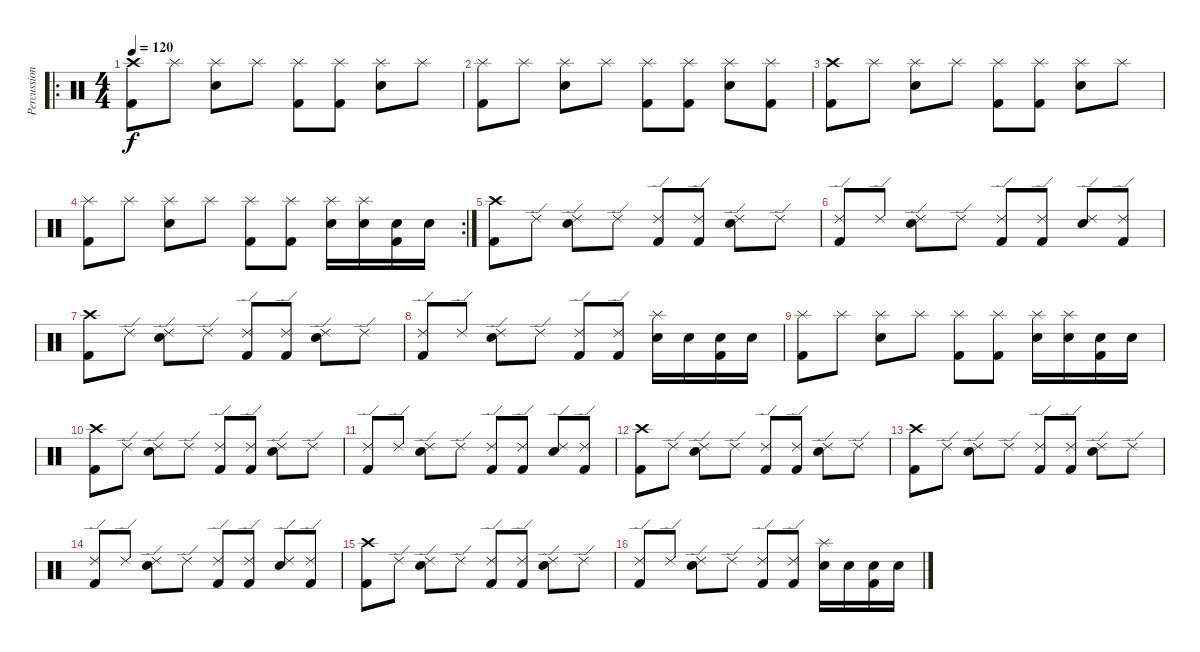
\track ("Percussion" "Percussion") {instrument percussion}
\staff {score}
\articulation defaults
\ro
\ts (4 4)
\tempo 120
\clef neutral
\ks c
("Crash high (hit)" "Kick (hit) 2").8{dy f} "Splash (hit)".8 ("Splash (hit)" "Electric Snare (hit)").8 "Splash (hit)".8 ("Splash (hit)" "Kick (hit) 2").8 ("Splash (hit)" "Kick (hit) 2").8 ("Splash (hit)" "Electric Snare (hit)").8 "Splash (hit)".8 |
("Splash (hit)" "Kick (hit) 2").8 "Splash (hit)".8 ("Splash (hit)" "Electric Snare (hit)").8 "Splash (hit)".8 ("Splash (hit)" "Kick (hit) 2").8 ("Splash (hit)" "Kick (hit) 2").8 ("Splash (hit)" "Electric Snare (hit)").8 ("Splash (hit)" "Kick (hit) 2").8 |
("Crash high (hit)" "Kick (hit) 2").8 "Splash (hit)".8 ("Splash (hit)" "Electric Snare (hit)").8 "Splash (hit)".8 ("Splash (hit)" "Kick (hit) 2").8 ("Splash (hit)" "Kick (hit) 2").8 ("Splash (hit)" "Electric Snare (hit)").8 "Splash (hit)".8 |
\rc 2
("Splash (hit)" "Kick (hit) 2").8 "Splash (hit)".8 ("Splash (hit)" "Electric Snare (hit)").8 "Splash (hit)".8 ("Splash (hit)" "Kick (hit) 2").8 ("Splash (hit)" "Kick (hit) 2").8 ("Splash (hit)" "Electric Snare (hit)").16 ("Splash (hit)" "Electric Snare (hit)").16 ("Electric Snare (hit)" "Kick (hit) 2").16 "Electric Snare (hit)".16 |
("Crash high (hit)" "Kick (hit) 2").8 "Ride (edge) 2".8 ("Ride (edge) 2" "Electric Snare (hit)").8 "Ride (edge) 2".8 ("Ride (edge) 2" "Kick (hit) 2").8 ("Ride (edge) 2" "Kick (hit) 2").8 ("Ride (edge) 2" "Electric Snare (hit)").8 "Ride (edge) 2".8 |
("Ride (edge) 2" "Kick (hit) 2").8 "Ride (edge) 2".8 ("Ride (edge) 2" "Electric Snare (hit)").8 "Ride (edge) 2".8 ("Ride (edge) 2" "Kick (hit) 2").8 ("Ride (edge) 2" "Kick (hit) 2").8 ("Ride (edge) 2" "Electric Snare (hit)").8 ("Ride (edge) 2" "Kick (hit) 2").8 |
("Crash high (hit)" "Kick (hit) 2").8 "Ride (edge) 2".8 ("Ride (edge) 2" "Electric Snare (hit)").8 "Ride (edge) 2".8 ("Ride (edge) 2" "Kick (hit) 2").8 ("Ride (edge) 2" "Kick (hit) 2").8 ("Ride (edge) 2" "Electric Snare (hit)").8 "Ride (edge) 2".8 |
("Ride (edge) 2" "Kick (hit) 2").8 "Ride (edge) 2".8 ("Ride (edge) 2" "Electric Snare (hit)").8 "Ride (edge) 2".8 ("Ride (edge) 2" "Kick (hit) 2").8 ("Ride (edge) 2" "Kick (hit) 2").8 ("Splash (hit)" "Electric Snare (hit)").16 "Electric Snare (hit)".16 ("Electric Snare (hit)" "Kick (hit) 2").16 "Electric Snare (hit)".16 |
("Splash (hit)" "Kick (hit) 2").8 "Splash (hit)".8 ("Splash (hit)" "Electric Snare (hit)").8 "Splash (hit)".8 ("Splash (hit)" "Kick (hit) 2").8 ("Splash (hit)" "Kick (hit) 2").8 ("Splash (hit)" "Electric Snare (hit)").16 ("Splash (hit)" "Electric Snare (hit)").16 ("Electric Snare (hit)" "Kick (hit) 2").16 "Electric Snare (hit)".16 |
("Crash high (hit)" "Kick (hit) 2").8 "Ride (edge) 2".8 ("Ride (edge) 2" "Electric Snare (hit)").8 "Ride (edge) 2".8 ("Ride (edge) 2" "Kick (hit) 2").8 ("Ride (edge) 2" "Kick (hit) 2").8 ("Ride (edge) 2" "Electric Snare (hit)").8 "Ride (edge) 2".8 |
("Ride (edge) 2" "Kick (hit) 2").8 "Ride (edge) 2".8 ("Ride (edge) 2" "Electric Snare (hit)").8 "Ride (edge) 2".8 ("Ride (edge) 2" "Kick (hit) 2").8 ("Ride (edge) 2" "Kick (hit) 2").8 ("Ride (edge) 2" "Electric Snare (hit)").8 ("Ride (edge) 2" "Kick (hit) 2").8 |
("Crash high (hit)" "Kick (hit) 2").8 "Ride (edge) 2".8 ("Ride (edge) 2" "Electric Snare (hit)").8 "Ride (edge) 2".8 ("Ride (edge) 2" "Kick (hit) 2").8 ("Ride (edge) 2" "Kick (hit) 2").8 ("Ride (edge) 2" "Electric Snare (hit)").8 "Ride (edge) 2".8 |
("Crash high (hit)" "Kick (hit) 2").8 "Ride (edge) 2".8 ("Ride (edge) 2" "Electric Snare (hit)").8 "Ride (edge) 2".8 ("Ride (edge) 2" "Kick (hit) 2").8 ("Ride (edge) 2" "Kick (hit) 2").8 ("Ride (edge) 2" "Electric Snare (hit)").8 "Ride (edge) 2".8 |
("Ride (edge) 2" "Kick (hit) 2").8 "Ride (edge) 2".8 ("Ride (edge) 2" "Electric Snare (hit)").8 "Ride (edge) 2".8 ("Ride (edge) 2" "Kick (hit) 2").8 ("Ride (edge) 2" "Kick (hit) 2").8 ("Ride (edge) 2" "Electric Snare (hit)").8 ("Ride (edge) 2" "Kick (hit) 2").8 |
("Crash high (hit)" "Kick (hit) 2").8 "Ride (edge) 2".8 ("Ride (edge) 2" "Electric Snare (hit)").8 "Ride (edge) 2".8 ("Ride (edge) 2" "Kick (hit) 2").8 ("Ride (edge) 2" "Kick (hit) 2").8 ("Ride (edge) 2" "Electric Snare (hit)").8 "Ride (edge) 2".8 |
("Ride (edge) 2" "Kick (hit) 2").8 "Ride (edge) 2".8 ("Ride (edge) 2" "Electric Snare (hit)").8 "Ride (edge) 2".8 ("Ride (edge) 2" "Kick (hit) 2").8 ("Ride (edge) 2" "Kick (hit) 2").8 ("Splash (hit)" "Electric Snare (hit)").16 "Electric Snare (hit)".16 ("Electric Snare (hit)" "Kick (hit) 2").16 "Electric Snare (hit)".16
